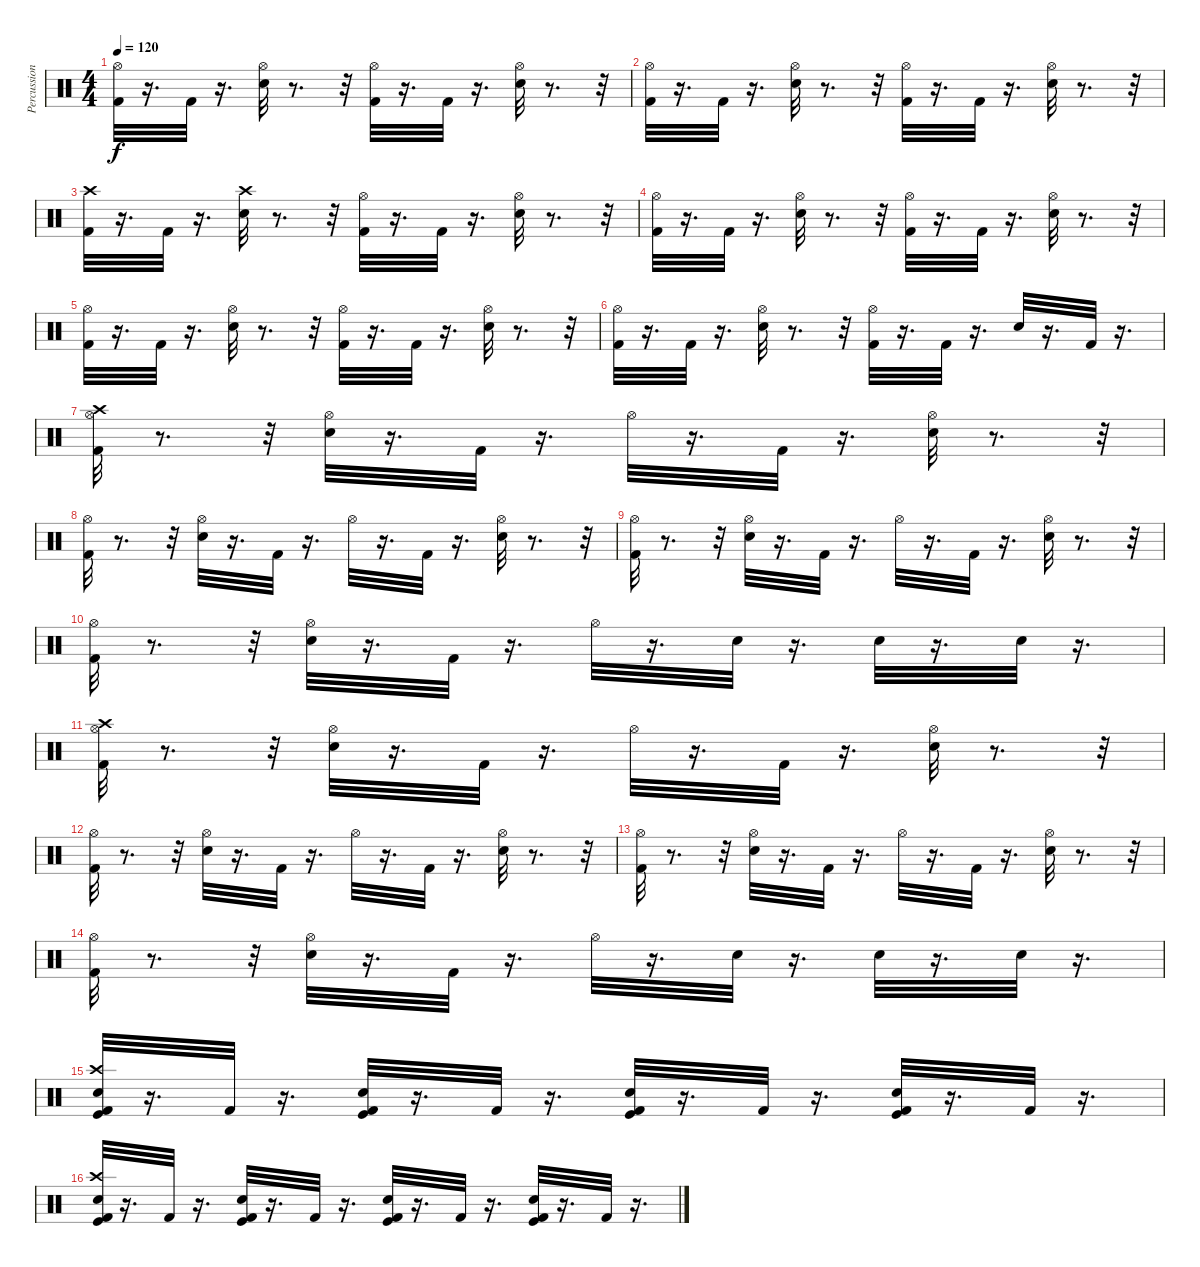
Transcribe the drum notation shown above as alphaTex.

\track ("Percussion" "Percussion") {instrument percussion}
\staff {score}
\articulation defaults
\ts (4 4)
\tempo 120
\clef neutral
\ks c
("Kick (hit) 2" "Hi-Hat (open)").32{dy f} r.16{d} "Kick (hit) 2".32 r.16{d} ("Electric Snare (hit)" "Hi-Hat (open)").32 r.8{d} r.32 ("Kick (hit) 2" "Hi-Hat (open)").32 r.16{d} "Kick (hit) 2".32 r.16{d} ("Electric Snare (hit)" "Hi-Hat (open)").32 r.8{d} r.32 |
("Kick (hit) 2" "Hi-Hat (open)").32 r.16{d} "Kick (hit) 2".32 r.16{d} ("Electric Snare (hit)" "Hi-Hat (open)").32 r.8{d} r.32 ("Kick (hit) 2" "Hi-Hat (open)").32 r.16{d} "Kick (hit) 2".32 r.16{d} ("Electric Snare (hit)" "Hi-Hat (open)").32 r.8{d} r.32 |
("Kick (hit) 2" "Crash high (hit)").32 r.16{d} "Kick (hit) 2".32 r.16{d} ("Electric Snare (hit)" "Crash high (hit)").32 r.8{d} r.32 ("Kick (hit) 2" "Hi-Hat (open)").32 r.16{d} "Kick (hit) 2".32 r.16{d} ("Electric Snare (hit)" "Hi-Hat (open)").32 r.8{d} r.32 |
("Kick (hit) 2" "Hi-Hat (open)").32 r.16{d} "Kick (hit) 2".32 r.16{d} ("Electric Snare (hit)" "Hi-Hat (open)").32 r.8{d} r.32 ("Kick (hit) 2" "Hi-Hat (open)").32 r.16{d} "Kick (hit) 2".32 r.16{d} ("Electric Snare (hit)" "Hi-Hat (open)").32 r.8{d} r.32 |
("Kick (hit) 2" "Hi-Hat (open)").32 r.16{d} "Kick (hit) 2".32 r.16{d} ("Electric Snare (hit)" "Hi-Hat (open)").32 r.8{d} r.32 ("Kick (hit) 2" "Hi-Hat (open)").32 r.16{d} "Kick (hit) 2".32 r.16{d} ("Electric Snare (hit)" "Hi-Hat (open)").32 r.8{d} r.32 |
("Kick (hit) 2" "Hi-Hat (open)").32 r.16{d} "Kick (hit) 2".32 r.16{d} ("Electric Snare (hit)" "Hi-Hat (open)").32 r.8{d} r.32 ("Kick (hit) 2" "Hi-Hat (open)").32 r.16{d} "Kick (hit) 2".32 r.16{d} "Electric Snare (hit)".32 r.16{d} "Kick (hit) 2".32 r.16{d} |
("Crash high (hit)" "Hi-Hat (open)" "Kick (hit) 2").32 r.8{d} r.32 ("Electric Snare (hit)" "Hi-Hat (open)").32 r.16{d} "Kick (hit) 2".32 r.16{d} "Hi-Hat (open)".32 r.16{d} "Kick (hit) 2".32 r.16{d} ("Electric Snare (hit)" "Hi-Hat (open)").32 r.8{d} r.32 |
("Hi-Hat (open)" "Kick (hit) 2").32 r.8{d} r.32 ("Electric Snare (hit)" "Hi-Hat (open)").32 r.16{d} "Kick (hit) 2".32 r.16{d} "Hi-Hat (open)".32 r.16{d} "Kick (hit) 2".32 r.16{d} ("Electric Snare (hit)" "Hi-Hat (open)").32 r.8{d} r.32 |
("Hi-Hat (open)" "Kick (hit) 2").32 r.8{d} r.32 ("Electric Snare (hit)" "Hi-Hat (open)").32 r.16{d} "Kick (hit) 2".32 r.16{d} "Hi-Hat (open)".32 r.16{d} "Kick (hit) 2".32 r.16{d} ("Electric Snare (hit)" "Hi-Hat (open)").32 r.8{d} r.32 |
("Hi-Hat (open)" "Kick (hit) 2").32 r.8{d} r.32 ("Electric Snare (hit)" "Hi-Hat (open)").32 r.16{d} "Kick (hit) 2".32 r.16{d} "Hi-Hat (open)".32 r.16{d} "Electric Snare (hit)".32 r.16{d} "Electric Snare (hit)".32 r.16{d} "Electric Snare (hit)".32 r.16{d} |
("Crash high (hit)" "Hi-Hat (open)" "Kick (hit) 2").32 r.8{d} r.32 ("Electric Snare (hit)" "Hi-Hat (open)").32 r.16{d} "Kick (hit) 2".32 r.16{d} "Hi-Hat (open)".32 r.16{d} "Kick (hit) 2".32 r.16{d} ("Electric Snare (hit)" "Hi-Hat (open)").32 r.8{d} r.32 |
("Hi-Hat (open)" "Kick (hit) 2").32 r.8{d} r.32 ("Electric Snare (hit)" "Hi-Hat (open)").32 r.16{d} "Kick (hit) 2".32 r.16{d} "Hi-Hat (open)".32 r.16{d} "Kick (hit) 2".32 r.16{d} ("Electric Snare (hit)" "Hi-Hat (open)").32 r.8{d} r.32 |
("Hi-Hat (open)" "Kick (hit) 2").32 r.8{d} r.32 ("Electric Snare (hit)" "Hi-Hat (open)").32 r.16{d} "Kick (hit) 2".32 r.16{d} "Hi-Hat (open)".32 r.16{d} "Kick (hit) 2".32 r.16{d} ("Electric Snare (hit)" "Hi-Hat (open)").32 r.8{d} r.32 |
("Hi-Hat (open)" "Kick (hit) 2").32 r.8{d} r.32 ("Electric Snare (hit)" "Hi-Hat (open)").32 r.16{d} "Kick (hit) 2".32 r.16{d} "Hi-Hat (open)".32 r.16{d} "Electric Snare (hit)".32 r.16{d} "Electric Snare (hit)".32 r.16{d} "Electric Snare (hit)".32 r.16{d} |
("Crash high (hit)" "Electric Snare (hit)" "Kick (hit) 2" "Kick (hit)").32 r.16{d} "Kick (hit) 2".32 r.16{d} ("Electric Snare (hit)" "Kick (hit)" "Kick (hit) 2").32 r.16{d} "Kick (hit) 2".32 r.16{d} ("Electric Snare (hit)" "Kick (hit)" "Kick (hit) 2").32 r.16{d} "Kick (hit) 2".32 r.16{d} ("Electric Snare (hit)" "Kick (hit)" "Kick (hit) 2").32 r.16{d} "Kick (hit) 2".32 r.16{d} |
("Crash high (hit)" "Electric Snare (hit)" "Kick (hit) 2" "Kick (hit)").32 r.16{d} "Kick (hit) 2".32 r.16{d} ("Electric Snare (hit)" "Kick (hit)" "Kick (hit) 2").32 r.16{d} "Kick (hit) 2".32 r.16{d} ("Electric Snare (hit)" "Kick (hit)" "Kick (hit) 2").32 r.16{d} "Kick (hit) 2".32 r.16{d} ("Electric Snare (hit)" "Kick (hit)" "Kick (hit) 2").32 r.16{d} "Kick (hit) 2".32 r.16{d}
